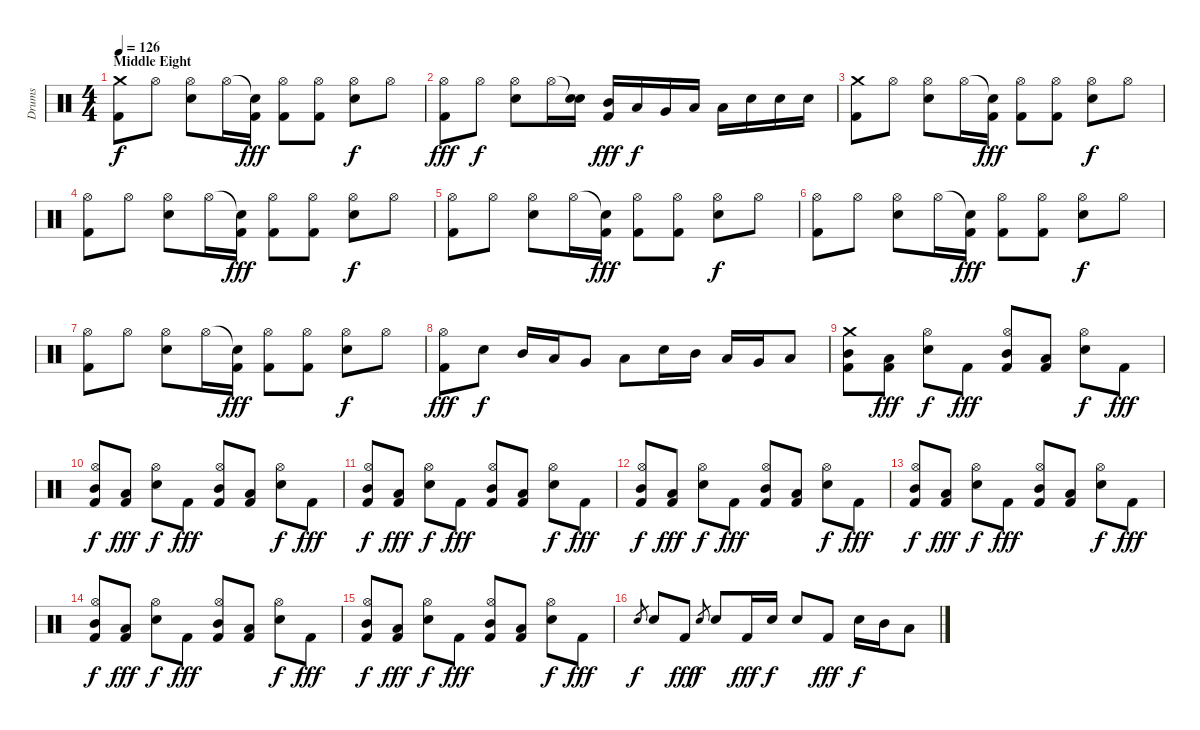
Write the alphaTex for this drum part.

\track ("Drums" "Drums") {instrument percussion}
\staff {score}
\articulation defaults
\ts (4 4)
\section ("" "Middle Eight")
\tempo 126
\clef neutral
\ks c
("Crash medium (hit)" "Kick (hit) 2").8{dy f} "Hi-Hat (open)".8 ("Hi-Hat (open)" "Snare (hit) 2").8 "Hi-Hat (open)".16 ("Snare (hit)"{t} "Kick (hit) 2").16{dy fff} ("Hi-Hat (open)" "Kick (hit) 2").8 ("Hi-Hat (open)" "Kick (hit) 2").8 ("Hi-Hat (open)" "Snare (hit) 2").8{dy f} "Hi-Hat (open)".8 |
("Hi-Hat (open)" "Kick (hit) 2").8{dy fff} "Hi-Hat (open)".8{dy f} ("Hi-Hat (open)" "Snare (hit) 2").8 "Hi-Hat (open)".16 ("Snare (hit)"{t} "Snare (hit) 2").16 ("Mid Tom (hit)" "Kick (hit) 2").16{dy fff} "Low Tom (hit)".16{dy f} "Very Low Tom (hit)".16 "Low Floor Tom (hit)".16 "Low Floor Tom (hit)".16 "Snare (hit) 2".16 "Snare (hit) 2".16 "Snare (hit) 2".16 |
("Crash medium (hit)" "Kick (hit) 2").8 "Hi-Hat (open)".8 ("Hi-Hat (open)" "Snare (hit) 2").8 "Hi-Hat (open)".16 ("Snare (hit)"{t} "Kick (hit) 2").16{dy fff} ("Hi-Hat (open)" "Kick (hit) 2").8 ("Hi-Hat (open)" "Kick (hit) 2").8 ("Hi-Hat (open)" "Snare (hit) 2").8{dy f} "Hi-Hat (open)".8 |
("Hi-Hat (open)" "Kick (hit) 2").8 "Hi-Hat (open)".8 ("Hi-Hat (open)" "Snare (hit) 2").8 "Hi-Hat (open)".16 ("Snare (hit)"{t} "Kick (hit) 2").16{dy fff} ("Hi-Hat (open)" "Kick (hit) 2").8 ("Hi-Hat (open)" "Kick (hit) 2").8 ("Hi-Hat (open)" "Snare (hit) 2").8{dy f} "Hi-Hat (open)".8 |
("Hi-Hat (open)" "Kick (hit) 2").8 "Hi-Hat (open)".8 ("Hi-Hat (open)" "Snare (hit) 2").8 "Hi-Hat (open)".16 ("Snare (hit)"{t} "Kick (hit) 2").16{dy fff} ("Hi-Hat (open)" "Kick (hit) 2").8 ("Hi-Hat (open)" "Kick (hit) 2").8 ("Hi-Hat (open)" "Snare (hit) 2").8{dy f} "Hi-Hat (open)".8 |
("Hi-Hat (open)" "Kick (hit) 2").8 "Hi-Hat (open)".8 ("Hi-Hat (open)" "Snare (hit) 2").8 "Hi-Hat (open)".16 ("Snare (hit)"{t} "Kick (hit) 2").16{dy fff} ("Hi-Hat (open)" "Kick (hit) 2").8 ("Hi-Hat (open)" "Kick (hit) 2").8 ("Hi-Hat (open)" "Snare (hit) 2").8{dy f} "Hi-Hat (open)".8 |
("Hi-Hat (open)" "Kick (hit) 2").8 "Hi-Hat (open)".8 ("Hi-Hat (open)" "Snare (hit) 2").8 "Hi-Hat (open)".16 ("Snare (hit)"{t} "Kick (hit) 2").16{dy fff} ("Hi-Hat (open)" "Kick (hit) 2").8 ("Hi-Hat (open)" "Kick (hit) 2").8 ("Hi-Hat (open)" "Snare (hit) 2").8{dy f} "Hi-Hat (open)".8 |
("Hi-Hat (open)" "Kick (hit) 2").8{dy fff} "Snare (hit) 2".8{dy f} "Mid Tom (hit)".16 "Low Tom (hit)".16 "Very Low Tom (hit)".8 "Low Floor Tom (hit)".8 "Snare (hit) 2".16 "Mid Tom (hit)".16 "Low Tom (hit)".16 "Very Low Tom (hit)".16 "Low Floor Tom (hit)".8 |
("Crash medium (hit)" "Mid Tom (hit)" "Kick (hit) 2").8 ("Low Tom (hit)" "Kick (hit) 2").8{dy fff} ("Hi-Hat (open)" "Snare (hit) 2").8{dy f} "Kick (hit) 2".8{dy fff} ("Hi-Hat (open)" "Mid Tom (hit)" "Kick (hit) 2").8 ("Low Tom (hit)" "Kick (hit) 2").8 ("Hi-Hat (open)" "Snare (hit) 2").8{dy f} "Kick (hit) 2".8{dy fff} |
("Hi-Hat (open)" "Mid Tom (hit)" "Kick (hit) 2").8{dy f} ("Low Tom (hit)" "Kick (hit) 2").8{dy fff} ("Hi-Hat (open)" "Snare (hit) 2").8{dy f} "Kick (hit) 2".8{dy fff} ("Hi-Hat (open)" "Mid Tom (hit)" "Kick (hit) 2").8 ("Low Tom (hit)" "Kick (hit) 2").8 ("Hi-Hat (open)" "Snare (hit) 2").8{dy f} "Kick (hit) 2".8{dy fff} |
("Hi-Hat (open)" "Mid Tom (hit)" "Kick (hit) 2").8{dy f} ("Low Tom (hit)" "Kick (hit) 2").8{dy fff} ("Hi-Hat (open)" "Snare (hit) 2").8{dy f} "Kick (hit) 2".8{dy fff} ("Hi-Hat (open)" "Mid Tom (hit)" "Kick (hit) 2").8 ("Low Tom (hit)" "Kick (hit) 2").8 ("Hi-Hat (open)" "Snare (hit) 2").8{dy f} "Kick (hit) 2".8{dy fff} |
("Hi-Hat (open)" "Mid Tom (hit)" "Kick (hit) 2").8{dy f} ("Low Tom (hit)" "Kick (hit) 2").8{dy fff} ("Hi-Hat (open)" "Snare (hit) 2").8{dy f} "Kick (hit) 2".8{dy fff} ("Hi-Hat (open)" "Mid Tom (hit)" "Kick (hit) 2").8 ("Low Tom (hit)" "Kick (hit) 2").8 ("Hi-Hat (open)" "Snare (hit) 2").8{dy f} "Kick (hit) 2".8{dy fff} |
("Hi-Hat (open)" "Mid Tom (hit)" "Kick (hit) 2").8{dy f} ("Low Tom (hit)" "Kick (hit) 2").8{dy fff} ("Hi-Hat (open)" "Snare (hit) 2").8{dy f} "Kick (hit) 2".8{dy fff} ("Hi-Hat (open)" "Mid Tom (hit)" "Kick (hit) 2").8 ("Low Tom (hit)" "Kick (hit) 2").8 ("Hi-Hat (open)" "Snare (hit) 2").8{dy f} "Kick (hit) 2".8{dy fff} |
("Hi-Hat (open)" "Mid Tom (hit)" "Kick (hit) 2").8{dy f} ("Low Tom (hit)" "Kick (hit) 2").8{dy fff} ("Hi-Hat (open)" "Snare (hit) 2").8{dy f} "Kick (hit) 2".8{dy fff} ("Hi-Hat (open)" "Mid Tom (hit)" "Kick (hit) 2").8 ("Low Tom (hit)" "Kick (hit) 2").8 ("Hi-Hat (open)" "Snare (hit) 2").8{dy f} "Kick (hit) 2".8{dy fff} |
("Hi-Hat (open)" "Mid Tom (hit)" "Kick (hit) 2").8{dy f} ("Low Tom (hit)" "Kick (hit) 2").8{dy fff} ("Hi-Hat (open)" "Snare (hit) 2").8{dy f} "Kick (hit) 2".8{dy fff} ("Hi-Hat (open)" "Mid Tom (hit)" "Kick (hit) 2").8 ("Low Tom (hit)" "Kick (hit) 2").8 ("Hi-Hat (open)" "Snare (hit) 2").8{dy f} "Kick (hit) 2".8{dy fff} |
"Snare (hit) 2".8{gr dy f} "Snare (hit) 2".8 "Kick (hit) 2".8{dy fff} "Snare (hit) 2".8{gr dy f} "Snare (hit) 2".8 "Kick (hit) 2".16{dy fff} "Snare (hit) 2".16{dy f} "Snare (hit) 2".8 "Kick (hit) 2".8{dy fff} "Snare (hit) 2".16{dy f} "Mid Tom (hit)".16 "Low Tom (hit)".8
